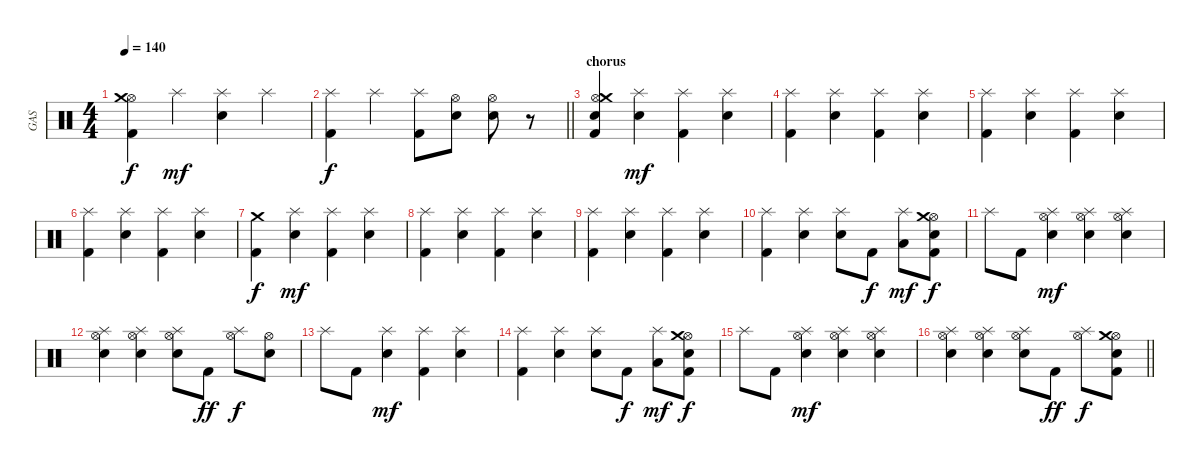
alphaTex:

\track ("GAS" "GAS") {instrument percussion}
\staff {score}
\articulation defaults
\ts (4 4)
\tempo 140
\clef neutral
\ks c
("Kick (hit) 2" "Hi-Hat (open)" "Crash medium (hit)").4{dy f} "Splash (hit)".4{dy mf} ("Electric Snare (hit)" "Splash (hit)").4 "Splash (hit)".4 |
\barLineRight lightlight
("Kick (hit) 2" "Splash (hit)").4{dy f} "Splash (hit)".4 ("Kick (hit) 2" "Splash (hit)").8 ("Electric Snare (hit)" "Hi-Hat (open)").8 ("Electric Snare (hit)" "Hi-Hat (open)").8 r.8 |
\section ("" "chorus")
("Kick (hit) 2" "Electric Snare (hit)" "Hi-Hat (open)" "Crash medium (hit)").4 ("Electric Snare (hit)" "Splash (hit)").4{dy mf} ("Kick (hit) 2" "Splash (hit)").4 ("Electric Snare (hit)" "Splash (hit)").4 |
("Kick (hit) 2" "Splash (hit)").4 ("Electric Snare (hit)" "Splash (hit)").4 ("Kick (hit) 2" "Splash (hit)").4 ("Electric Snare (hit)" "Splash (hit)").4 |
("Kick (hit) 2" "Splash (hit)").4 ("Electric Snare (hit)" "Splash (hit)").4 ("Kick (hit) 2" "Splash (hit)").4 ("Electric Snare (hit)" "Splash (hit)").4 |
("Kick (hit) 2" "Splash (hit)").4 ("Electric Snare (hit)" "Splash (hit)").4 ("Kick (hit) 2" "Splash (hit)").4 ("Electric Snare (hit)" "Splash (hit)").4 |
("Kick (hit) 2" "Crash medium (hit)").4{dy f} ("Electric Snare (hit)" "Splash (hit)").4{dy mf} ("Kick (hit) 2" "Splash (hit)").4 ("Electric Snare (hit)" "Splash (hit)").4 |
("Kick (hit) 2" "Splash (hit)").4 ("Electric Snare (hit)" "Splash (hit)").4 ("Kick (hit) 2" "Splash (hit)").4 ("Electric Snare (hit)" "Splash (hit)").4 |
("Kick (hit) 2" "Splash (hit)").4 ("Electric Snare (hit)" "Splash (hit)").4 ("Kick (hit) 2" "Splash (hit)").4 ("Electric Snare (hit)" "Splash (hit)").4 |
("Kick (hit) 2" "Splash (hit)").4 ("Electric Snare (hit)" "Splash (hit)").4 ("Electric Snare (hit)" "Splash (hit)").8 "Kick (hit) 2".8{dy f} ("Low Tom (hit)" "Splash (hit)").8{dy mf} ("Kick (hit) 2" "Electric Snare (hit)" "Hi-Hat (open)" "Crash medium (hit)").8{dy f} |
"Splash (hit)".8 "Kick (hit) 2".8 ("Electric Snare (hit)" "Hi-Hat (open)" "Splash (hit)").4{dy mf} ("Electric Snare (hit)" "Hi-Hat (open)" "Splash (hit)").4 ("Electric Snare (hit)" "Hi-Hat (open)" "Splash (hit)").4 |
("Electric Snare (hit)" "Hi-Hat (open)" "Splash (hit)").4 ("Electric Snare (hit)" "Hi-Hat (open)" "Splash (hit)").4 ("Electric Snare (hit)" "Hi-Hat (open)" "Splash (hit)").8 "Kick (hit) 2".8{dy ff} ("Hi-Hat (open)" "Splash (hit)").8{dy f} ("Electric Snare (hit)" "Hi-Hat (open)").8 |
"Splash (hit)".8 "Kick (hit) 2".8 ("Electric Snare (hit)" "Splash (hit)").4{dy mf} ("Kick (hit) 2" "Splash (hit)").4 ("Electric Snare (hit)" "Splash (hit)").4 |
("Kick (hit) 2" "Splash (hit)").4 ("Electric Snare (hit)" "Splash (hit)").4 ("Electric Snare (hit)" "Splash (hit)").8 "Kick (hit) 2".8{dy f} ("Low Tom (hit)" "Splash (hit)").8{dy mf} ("Kick (hit) 2" "Electric Snare (hit)" "Hi-Hat (open)" "Crash medium (hit)").8{dy f} |
"Splash (hit)".8 "Kick (hit) 2".8 ("Electric Snare (hit)" "Hi-Hat (open)" "Splash (hit)").4{dy mf} ("Electric Snare (hit)" "Hi-Hat (open)" "Splash (hit)").4 ("Electric Snare (hit)" "Hi-Hat (open)" "Splash (hit)").4 |
\barLineRight lightlight
("Electric Snare (hit)" "Hi-Hat (open)" "Splash (hit)").4 ("Electric Snare (hit)" "Hi-Hat (open)" "Splash (hit)").4 ("Electric Snare (hit)" "Hi-Hat (open)" "Splash (hit)").8 "Kick (hit) 2".8{dy ff} ("Hi-Hat (open)" "Splash (hit)").8{dy f} ("Kick (hit) 2" "Electric Snare (hit)" "Hi-Hat (open)" "Crash medium (hit)").8
